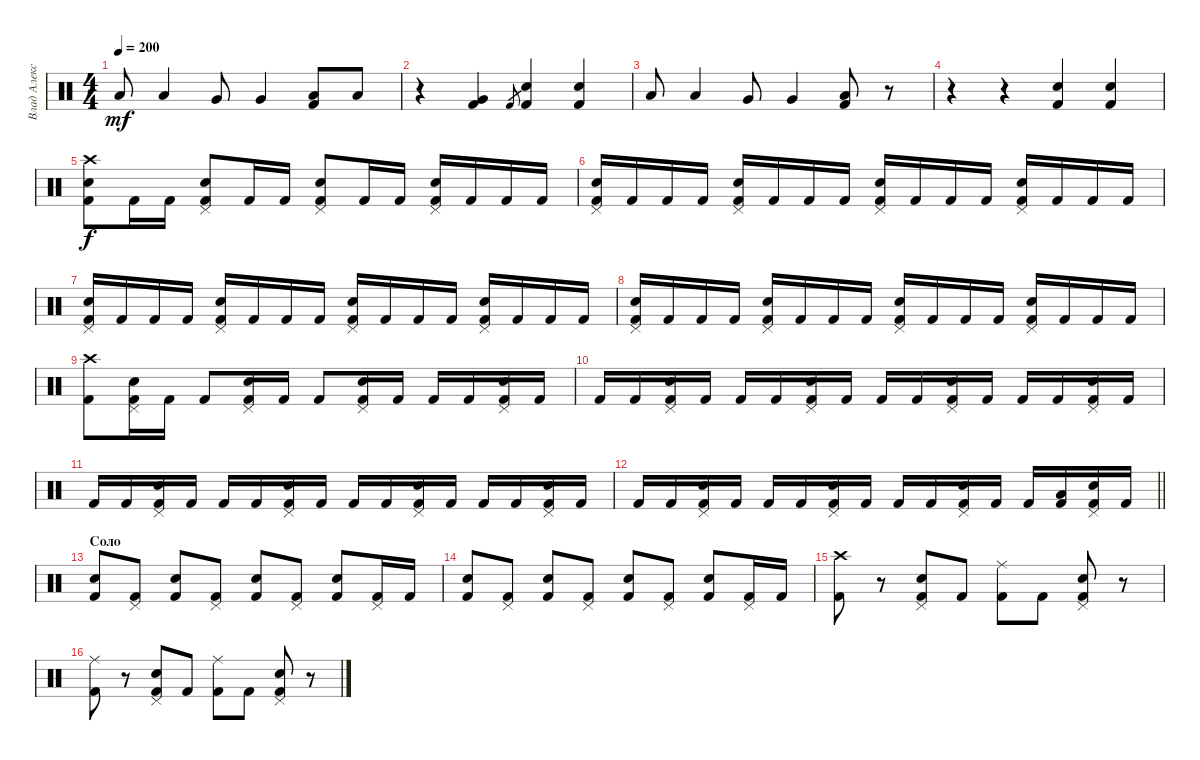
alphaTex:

\track ("Влад Алексеенко" "Влад Алекс") {instrument percussion}
\staff {score}
\articulation defaults
\ts (4 4)
\tempo 200
\clef neutral
\ks c "Low Tom (hit)".8{dy mf} "Low Tom (hit)".4 "Very Low Tom (hit)".8 "Very Low Tom (hit)".4
("Low Tom (hit)" "Kick (hit) 2").8 "Low Tom (hit)".8 |
r.4 ("Very Low Tom (hit)" "Kick (hit) 2").4 "Kick (hit) 2".8{gr} ("Electric Snare (hit)" "Kick (hit) 2").4 ("Electric Snare (hit)" "Kick (hit) 2").4 |
"Low Tom (hit)".8 "Low Tom (hit)".4 "Very Low Tom (hit)".8 "Very Low Tom (hit)".4 ("Low Tom (hit)" "Kick (hit) 2").8 r.8 |
r.4 r.4 ("Electric Snare (hit)" "Kick (hit) 2").4 ("Electric Snare (hit)" "Kick (hit) 2").4 |
("Kick (hit) 2" "Crash high (hit)" "Electric Snare (hit)").8{dy f} "Kick (hit) 2".16 "Kick (hit) 2".16 ("Kick (hit) 2" "Electric Snare (hit)" "Pedal Hi-Hat (hit)").8 "Kick (hit) 2".16 "Kick (hit) 2".16 ("Kick (hit) 2" "Electric Snare (hit)" "Pedal Hi-Hat (hit)").8 "Kick (hit) 2".16 "Kick (hit) 2".16 ("Kick (hit) 2" "Electric Snare (hit)" "Pedal Hi-Hat (hit)").16 "Kick (hit) 2".16 "Kick (hit) 2".16 "Kick (hit) 2".16 |
("Kick (hit) 2" "Electric Snare (hit)" "Pedal Hi-Hat (hit)").16 "Kick (hit) 2".16 "Kick (hit) 2".16 "Kick (hit) 2".16 ("Kick (hit) 2" "Electric Snare (hit)" "Pedal Hi-Hat (hit)").16 "Kick (hit) 2".16 "Kick (hit) 2".16 "Kick (hit) 2".16 ("Kick (hit) 2" "Electric Snare (hit)" "Pedal Hi-Hat (hit)").16 "Kick (hit) 2".16 "Kick (hit) 2".16 "Kick (hit) 2".16 ("Kick (hit) 2" "Electric Snare (hit)" "Pedal Hi-Hat (hit)").16 "Kick (hit) 2".16 "Kick (hit) 2".16 "Kick (hit) 2".16 |
("Kick (hit) 2" "Electric Snare (hit)" "Pedal Hi-Hat (hit)").16 "Kick (hit) 2".16 "Kick (hit) 2".16 "Kick (hit) 2".16 ("Kick (hit) 2" "Electric Snare (hit)" "Pedal Hi-Hat (hit)").16 "Kick (hit) 2".16 "Kick (hit) 2".16 "Kick (hit) 2".16 ("Kick (hit) 2" "Electric Snare (hit)" "Pedal Hi-Hat (hit)").16 "Kick (hit) 2".16 "Kick (hit) 2".16 "Kick (hit) 2".16 ("Kick (hit) 2" "Electric Snare (hit)" "Pedal Hi-Hat (hit)").16 "Kick (hit) 2".16 "Kick (hit) 2".16 "Kick (hit) 2".16 |
("Kick (hit) 2" "Electric Snare (hit)" "Pedal Hi-Hat (hit)").16 "Kick (hit) 2".16 "Kick (hit) 2".16 "Kick (hit) 2".16 ("Kick (hit) 2" "Electric Snare (hit)" "Pedal Hi-Hat (hit)").16 "Kick (hit) 2".16 "Kick (hit) 2".16 "Kick (hit) 2".16 ("Kick (hit) 2" "Electric Snare (hit)" "Pedal Hi-Hat (hit)").16 "Kick (hit) 2".16 "Kick (hit) 2".16 "Kick (hit) 2".16 ("Kick (hit) 2" "Electric Snare (hit)" "Pedal Hi-Hat (hit)").16 "Kick (hit) 2".16 "Kick (hit) 2".16 "Kick (hit) 2".16 |
("Kick (hit) 2" "Crash high (hit)").8 ("Kick (hit) 2" "Electric Snare (hit)" "Pedal Hi-Hat (hit)").16 "Kick (hit) 2".16 "Kick (hit) 2".8 ("Kick (hit) 2" "Electric Snare (hit)" "Pedal Hi-Hat (hit)").16 "Kick (hit) 2".16 "Kick (hit) 2".8 ("Kick (hit) 2" "Electric Snare (hit)" "Pedal Hi-Hat (hit)").16 "Kick (hit) 2".16 "Kick (hit) 2".16 "Kick (hit) 2".16 ("Kick (hit) 2" "Electric Snare (hit)" "Pedal Hi-Hat (hit)").16 "Kick (hit) 2".16 |
"Kick (hit) 2".16 "Kick (hit) 2".16 ("Kick (hit) 2" "Electric Snare (hit)" "Pedal Hi-Hat (hit)").16 "Kick (hit) 2".16 "Kick (hit) 2".16 "Kick (hit) 2".16 ("Kick (hit) 2" "Electric Snare (hit)" "Pedal Hi-Hat (hit)").16 "Kick (hit) 2".16 "Kick (hit) 2".16 "Kick (hit) 2".16 ("Kick (hit) 2" "Electric Snare (hit)" "Pedal Hi-Hat (hit)").16 "Kick (hit) 2".16 "Kick (hit) 2".16 "Kick (hit) 2".16 ("Kick (hit) 2" "Electric Snare (hit)" "Pedal Hi-Hat (hit)").16 "Kick (hit) 2".16 |
"Kick (hit) 2".16 "Kick (hit) 2".16 ("Kick (hit) 2" "Electric Snare (hit)" "Pedal Hi-Hat (hit)").16 "Kick (hit) 2".16 "Kick (hit) 2".16 "Kick (hit) 2".16 ("Kick (hit) 2" "Electric Snare (hit)" "Pedal Hi-Hat (hit)").16 "Kick (hit) 2".16 "Kick (hit) 2".16 "Kick (hit) 2".16 ("Kick (hit) 2" "Electric Snare (hit)" "Pedal Hi-Hat (hit)").16 "Kick (hit) 2".16 "Kick (hit) 2".16 "Kick (hit) 2".16 ("Kick (hit) 2" "Electric Snare (hit)" "Pedal Hi-Hat (hit)").16 "Kick (hit) 2".16 |
\barLineRight lightlight "Kick (hit) 2".16 "Kick (hit) 2".16
("Kick (hit) 2" "Electric Snare (hit)" "Pedal Hi-Hat (hit)").16 "Kick (hit) 2".16 "Kick (hit) 2".16 "Kick (hit) 2".16 ("Kick (hit) 2" "Electric Snare (hit)" "Pedal Hi-Hat (hit)").16 "Kick (hit) 2".16 "Kick (hit) 2".16 "Kick (hit) 2".16 ("Kick (hit) 2" "Electric Snare (hit)" "Pedal Hi-Hat (hit)").16 "Kick (hit) 2".16 "Kick (hit) 2".16 ("Kick (hit) 2" "Low Floor Tom (hit)").16 ("Kick (hit) 2" "Electric Snare (hit)" "Pedal Hi-Hat (hit)").16 "Kick (hit) 2".16 |
\section ("" "Соло")
("Electric Snare (hit)" "Kick (hit) 2").8 ("Pedal Hi-Hat (hit)" "Kick (hit) 2").8 ("Electric Snare (hit)" "Kick (hit) 2").8 ("Pedal Hi-Hat (hit)" "Kick (hit) 2").8 ("Electric Snare (hit)" "Kick (hit) 2").8 ("Pedal Hi-Hat (hit)" "Kick (hit) 2").8 ("Electric Snare (hit)" "Kick (hit) 2").8 ("Pedal Hi-Hat (hit)" "Kick (hit) 2").16 "Kick (hit) 2".16 |
("Electric Snare (hit)" "Kick (hit) 2").8 ("Pedal Hi-Hat (hit)" "Kick (hit) 2").8 ("Electric Snare (hit)" "Kick (hit) 2").8 ("Pedal Hi-Hat (hit)" "Kick (hit) 2").8 ("Electric Snare (hit)" "Kick (hit) 2").8 ("Pedal Hi-Hat (hit)" "Kick (hit) 2").8 ("Electric Snare (hit)" "Kick (hit) 2").8 ("Pedal Hi-Hat (hit)" "Kick (hit) 2").16 "Kick (hit) 2".16 |
("Crash high (hit)" "Kick (hit) 2").8 r.8 ("Pedal Hi-Hat (hit)" "Electric Snare (hit)" "Kick (hit) 2").8 "Kick (hit) 2".8 ("Ride (middle)" "Kick (hit) 2").8 "Kick (hit) 2".8 ("Pedal Hi-Hat (hit)" "Electric Snare (hit)" "Kick (hit) 2").8 r.8 |
("Ride (middle)" "Kick (hit) 2").8 r.8 ("Pedal Hi-Hat (hit)" "Electric Snare (hit)" "Kick (hit) 2").8 "Kick (hit) 2".8 ("Ride (middle)" "Kick (hit) 2").8 "Kick (hit) 2".8 ("Pedal Hi-Hat (hit)" "Electric Snare (hit)" "Kick (hit) 2").8 r.8
